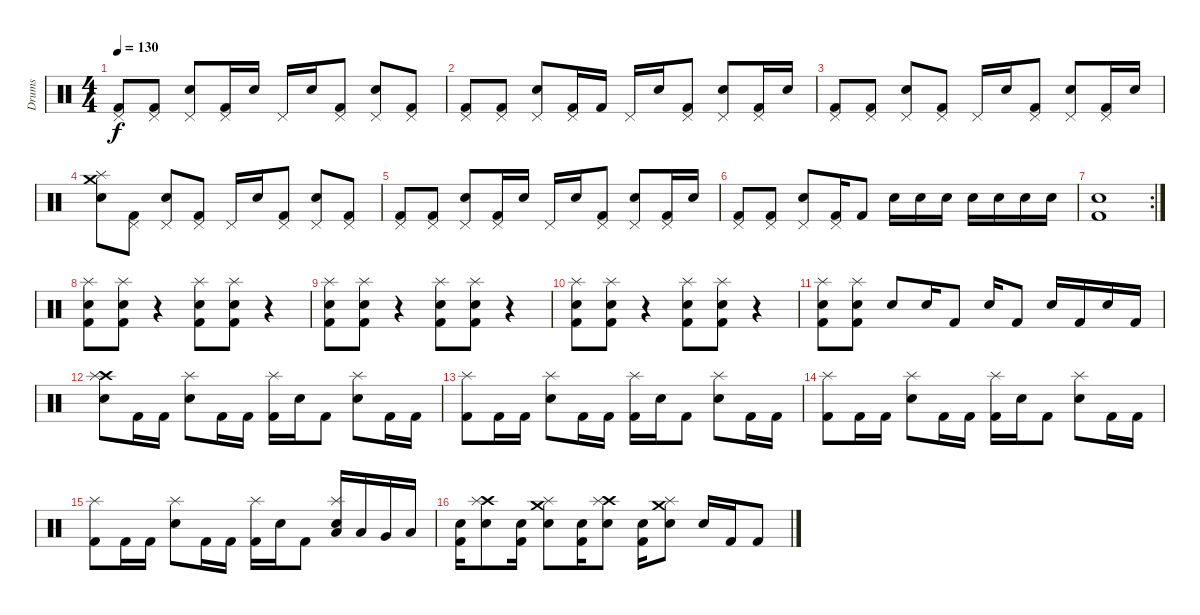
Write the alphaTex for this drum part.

\track ("Drums" "Drums") {instrument percussion}
\staff {score}
\articulation defaults
\ts (4 4)
\tempo 130
\clef neutral
\ks c
("Pedal Hi-Hat (hit)" "Kick (hit) 2").8{dy f} ("Pedal Hi-Hat (hit)" "Kick (hit) 2").8 ("Pedal Hi-Hat (hit)" "Snare (hit) 2").8 ("Pedal Hi-Hat (hit)" "Kick (hit) 2").16 "Snare (hit) 2".16 "Pedal Hi-Hat (hit)".16 "Snare (hit) 2".16 ("Pedal Hi-Hat (hit)" "Kick (hit) 2").8 ("Pedal Hi-Hat (hit)" "Snare (hit) 2").8 ("Pedal Hi-Hat (hit)" "Kick (hit) 2").8 |
("Pedal Hi-Hat (hit)" "Kick (hit) 2").8 ("Pedal Hi-Hat (hit)" "Kick (hit) 2").8 ("Pedal Hi-Hat (hit)" "Snare (hit) 2").8 ("Pedal Hi-Hat (hit)" "Kick (hit) 2").16 "Kick (hit) 2".16 "Pedal Hi-Hat (hit)".16 "Snare (hit) 2".16 ("Pedal Hi-Hat (hit)" "Kick (hit) 2").8 ("Pedal Hi-Hat (hit)" "Snare (hit) 2").8 ("Pedal Hi-Hat (hit)" "Kick (hit) 2").16 "Snare (hit) 2".16 |
("Pedal Hi-Hat (hit)" "Kick (hit) 2").8 ("Pedal Hi-Hat (hit)" "Kick (hit) 2").8 ("Pedal Hi-Hat (hit)" "Snare (hit) 2").8 ("Pedal Hi-Hat (hit)" "Kick (hit) 2").8 "Pedal Hi-Hat (hit)".16 "Snare (hit) 2".16 ("Pedal Hi-Hat (hit)" "Kick (hit) 2").8 ("Pedal Hi-Hat (hit)" "Snare (hit) 2").8 ("Pedal Hi-Hat (hit)" "Kick (hit) 2").16 "Snare (hit) 2".16 |
("Crash medium (hit)" "Splash (hit)" "Snare (hit) 2").8 ("Pedal Hi-Hat (hit)" "Kick (hit) 2").8 ("Pedal Hi-Hat (hit)" "Snare (hit) 2").8 ("Pedal Hi-Hat (hit)" "Kick (hit) 2").8 "Pedal Hi-Hat (hit)".16 "Snare (hit) 2".16 ("Pedal Hi-Hat (hit)" "Kick (hit) 2").8 ("Pedal Hi-Hat (hit)" "Snare (hit) 2").8 ("Pedal Hi-Hat (hit)" "Kick (hit) 2").8 |
("Pedal Hi-Hat (hit)" "Kick (hit) 2").8 ("Pedal Hi-Hat (hit)" "Kick (hit) 2").8 ("Pedal Hi-Hat (hit)" "Snare (hit) 2").8 ("Pedal Hi-Hat (hit)" "Kick (hit) 2").16 "Snare (hit) 2".16 "Pedal Hi-Hat (hit)".16 "Snare (hit) 2".16 ("Pedal Hi-Hat (hit)" "Kick (hit) 2").8 ("Pedal Hi-Hat (hit)" "Snare (hit) 2").8 ("Pedal Hi-Hat (hit)" "Kick (hit) 2").16 "Snare (hit) 2".16 |
("Pedal Hi-Hat (hit)" "Kick (hit) 2").8 ("Pedal Hi-Hat (hit)" "Kick (hit) 2").8 ("Pedal Hi-Hat (hit)" "Snare (hit) 2").8 ("Pedal Hi-Hat (hit)" "Kick (hit) 2").16 "Kick (hit) 2".8 "Snare (hit) 2".16 "Snare (hit) 2".16 "Snare (hit) 2".16 "Snare (hit) 2".16 "Snare (hit) 2".16 "Snare (hit) 2".16 "Snare (hit) 2".16 |
\rc 2
("Snare (hit) 2" "Kick (hit) 2").1 |
("Splash (hit)" "Snare (hit) 2" "Kick (hit) 2").8 ("Splash (hit)" "Snare (hit) 2" "Kick (hit) 2").8 r.4 ("Splash (hit)" "Snare (hit) 2" "Kick (hit) 2").8 ("Splash (hit)" "Snare (hit) 2" "Kick (hit) 2").8 r.4 |
("Splash (hit)" "Snare (hit) 2" "Kick (hit) 2").8 ("Splash (hit)" "Snare (hit) 2" "Kick (hit) 2").8 r.4 ("Splash (hit)" "Snare (hit) 2" "Kick (hit) 2").8 ("Splash (hit)" "Snare (hit) 2" "Kick (hit) 2").8 r.4 |
("Splash (hit)" "Snare (hit) 2" "Kick (hit) 2").8 ("Splash (hit)" "Snare (hit) 2" "Kick (hit) 2").8 r.4 ("Splash (hit)" "Snare (hit) 2" "Kick (hit) 2").8 ("Splash (hit)" "Snare (hit) 2" "Kick (hit) 2").8 r.4 |
("Splash (hit)" "Snare (hit) 2" "Kick (hit) 2").8 ("Splash (hit)" "Snare (hit) 2" "Kick (hit) 2").8 "Snare (hit) 2".8 "Snare (hit) 2".16 "Kick (hit) 2".8 "Snare (hit) 2".16 "Kick (hit) 2".8 "Snare (hit) 2".16 "Kick (hit) 2".16 "Snare (hit) 2".16 "Kick (hit) 2".16 |
("Crash high (hit)" "Splash (hit)" "Snare (hit) 2").8 "Kick (hit) 2".16 "Kick (hit) 2".16 ("Splash (hit)" "Snare (hit) 2").8 "Kick (hit) 2".16 "Kick (hit) 2".16 ("Splash (hit)" "Kick (hit) 2").16 "Snare (hit) 2".16 "Kick (hit) 2".8 ("Splash (hit)" "Snare (hit) 2").8 "Kick (hit) 2".16 "Kick (hit) 2".16 |
("Splash (hit)" "Kick (hit) 2").8 "Kick (hit) 2".16 "Kick (hit) 2".16 ("Splash (hit)" "Snare (hit) 2").8 "Kick (hit) 2".16 "Kick (hit) 2".16 ("Splash (hit)" "Kick (hit) 2").16 "Snare (hit) 2".16 "Kick (hit) 2".8 ("Splash (hit)" "Snare (hit) 2").8 "Kick (hit) 2".16 "Kick (hit) 2".16 |
("Splash (hit)" "Kick (hit) 2").8 "Kick (hit) 2".16 "Kick (hit) 2".16 ("Splash (hit)" "Snare (hit) 2").8 "Kick (hit) 2".16 "Kick (hit) 2".16 ("Splash (hit)" "Kick (hit) 2").16 "Snare (hit) 2".16 "Kick (hit) 2".8 ("Splash (hit)" "Snare (hit) 2").8 "Kick (hit) 2".16 "Kick (hit) 2".16 |
("Splash (hit)" "Kick (hit) 2").8 "Kick (hit) 2".16 "Kick (hit) 2".16 ("Splash (hit)" "Snare (hit) 2").8 "Kick (hit) 2".16 "Kick (hit) 2".16 ("Splash (hit)" "Kick (hit) 2").16 "Snare (hit) 2".16 "Kick (hit) 2".8 ("Splash (hit)" "Snare (hit) 2" "Low Tom (hit)").16 "Low Tom (hit)".16 "Very Low Tom (hit)".16 "Low Floor Tom (hit)".16 |
("Snare (hit) 2" "Kick (hit) 2").16 ("Crash high (hit)" "Splash (hit)" "Snare (hit) 2").8 ("Snare (hit) 2" "Kick (hit) 2").16 ("Crash medium (hit)" "Splash (hit)" "Snare (hit) 2").8 ("Snare (hit) 2" "Kick (hit) 2").16 ("Crash high (hit)" "Splash (hit)" "Snare (hit) 2").8 ("Snare (hit) 2" "Kick (hit) 2").16 ("Crash medium (hit)" "Splash (hit)" "Snare (hit) 2").8 "Snare (hit) 2".16 "Kick (hit) 2".16 "Kick (hit) 2".8
